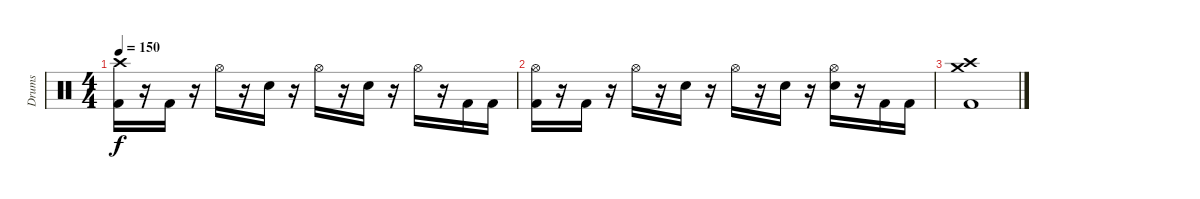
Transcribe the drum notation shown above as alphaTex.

\track ("Drums" "Drums") {instrument percussion}
\staff {score}
\articulation defaults
\ts (4 4)
\tempo 150
\clef neutral
\ks c
("Crash high (hit)" "Kick (hit) 2").16{dy f} r.16 "Kick (hit) 2".16 r.16 "Hi-Hat (open)".16 r.16 "Electric Snare (hit)".16 r.16 "Hi-Hat (open)".16 r.16 "Electric Snare (hit)".16 r.16 "Hi-Hat (open)".16 r.16 "Kick (hit) 2".16 "Kick (hit) 2".16 |
("Hi-Hat (open)" "Kick (hit) 2").16 r.16 "Kick (hit) 2".16 r.16 "Hi-Hat (open)".16 r.16 "Electric Snare (hit)".16 r.16 "Hi-Hat (open)".16 r.16 "Electric Snare (hit)".16 r.16 ("Hi-Hat (open)" "Electric Snare (hit)").16 r.16 "Kick (hit) 2".16 "Kick (hit) 2".16 |
("Crash high (hit)" "Crash medium (hit)" "Kick (hit) 2").1
